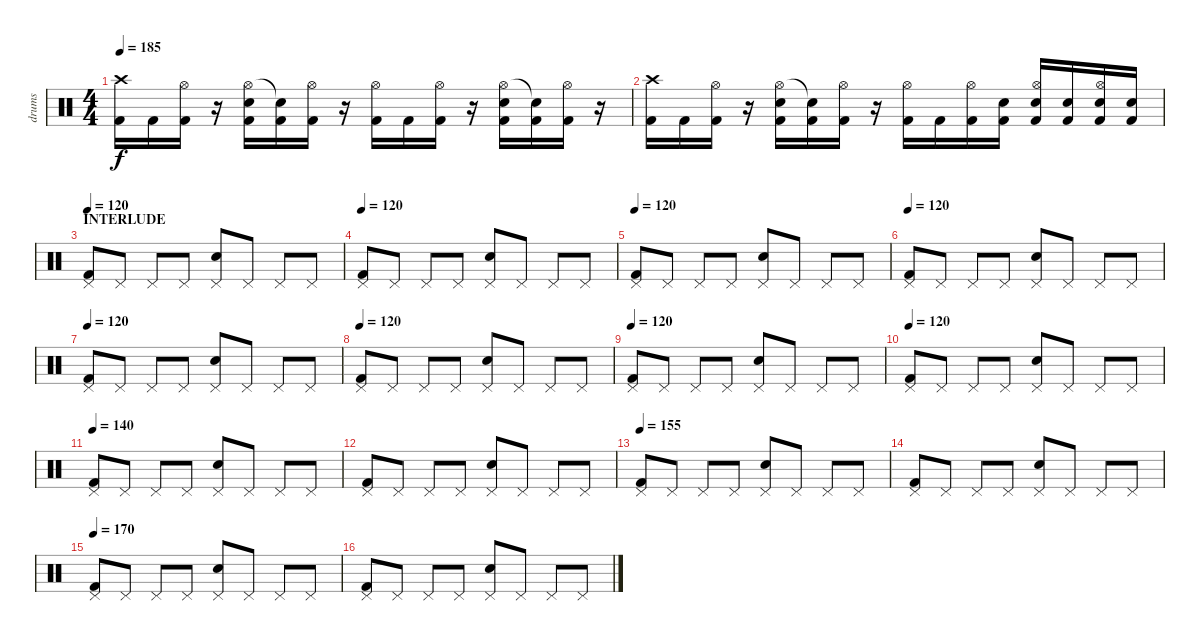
\track ("drums" "drums") {instrument percussion}
\staff {score}
\articulation defaults
\ts (4 4)
\tempo 185
\clef neutral
\ks c
("Crash high (hit)" "Kick (hit) 2").16{dy f} "Kick (hit) 2".16 ("Hi-Hat (open)" "Kick (hit) 2").16 r.16 ("Hi-Hat (open)" "Electric Snare (hit)" "Kick (hit) 2").16 ("Snare (hit)"{t} "Kick (hit) 2").16 ("Hi-Hat (open)" "Kick (hit) 2").16 r.16 ("Hi-Hat (open)" "Kick (hit) 2").16 "Kick (hit) 2".16 ("Hi-Hat (open)" "Kick (hit) 2").16 r.16 ("Hi-Hat (open)" "Electric Snare (hit)" "Kick (hit) 2").16 ("Snare (hit)"{t} "Kick (hit) 2").16 ("Hi-Hat (open)" "Kick (hit) 2").16 r.16 |
("Crash high (hit)" "Kick (hit) 2").16 "Kick (hit) 2".16 ("Hi-Hat (open)" "Kick (hit) 2").16 r.16 ("Hi-Hat (open)" "Electric Snare (hit)" "Kick (hit) 2").16 ("Snare (hit)"{t} "Kick (hit) 2").16 ("Hi-Hat (open)" "Kick (hit) 2").16 r.16 ("Hi-Hat (open)" "Kick (hit) 2").16 "Kick (hit) 2".16 ("Hi-Hat (open)" "Kick (hit) 2").16 ("Electric Snare (hit)" "Kick (hit) 2").16 ("Hi-Hat (open)" "Electric Snare (hit)" "Kick (hit) 2").16 ("Electric Snare (hit)" "Kick (hit) 2").16 ("Hi-Hat (open)" "Electric Snare (hit)" "Kick (hit) 2").16 ("Electric Snare (hit)" "Kick (hit) 2").16 |
\section ("" "INTERLUDE")
\tempo 120
("Pedal Hi-Hat (hit)" "Kick (hit) 2").8 "Pedal Hi-Hat (hit)".8 "Pedal Hi-Hat (hit)".8 "Pedal Hi-Hat (hit)".8 ("Pedal Hi-Hat (hit)" "Electric Snare (hit)").8 "Pedal Hi-Hat (hit)".8 "Pedal Hi-Hat (hit)".8 "Pedal Hi-Hat (hit)".8 |
\tempo 120
("Pedal Hi-Hat (hit)" "Kick (hit) 2").8 "Pedal Hi-Hat (hit)".8 "Pedal Hi-Hat (hit)".8 "Pedal Hi-Hat (hit)".8 ("Pedal Hi-Hat (hit)" "Electric Snare (hit)").8 "Pedal Hi-Hat (hit)".8 "Pedal Hi-Hat (hit)".8 "Pedal Hi-Hat (hit)".8 |
\tempo 120
("Pedal Hi-Hat (hit)" "Kick (hit) 2").8 "Pedal Hi-Hat (hit)".8 "Pedal Hi-Hat (hit)".8 "Pedal Hi-Hat (hit)".8 ("Pedal Hi-Hat (hit)" "Electric Snare (hit)").8 "Pedal Hi-Hat (hit)".8 "Pedal Hi-Hat (hit)".8 "Pedal Hi-Hat (hit)".8 |
\tempo 120
("Pedal Hi-Hat (hit)" "Kick (hit) 2").8 "Pedal Hi-Hat (hit)".8 "Pedal Hi-Hat (hit)".8 "Pedal Hi-Hat (hit)".8 ("Pedal Hi-Hat (hit)" "Electric Snare (hit)").8 "Pedal Hi-Hat (hit)".8 "Pedal Hi-Hat (hit)".8 "Pedal Hi-Hat (hit)".8 |
\tempo 120
("Pedal Hi-Hat (hit)" "Kick (hit) 2").8 "Pedal Hi-Hat (hit)".8 "Pedal Hi-Hat (hit)".8 "Pedal Hi-Hat (hit)".8 ("Pedal Hi-Hat (hit)" "Electric Snare (hit)").8 "Pedal Hi-Hat (hit)".8 "Pedal Hi-Hat (hit)".8 "Pedal Hi-Hat (hit)".8 |
\tempo 120
("Pedal Hi-Hat (hit)" "Kick (hit) 2").8 "Pedal Hi-Hat (hit)".8 "Pedal Hi-Hat (hit)".8 "Pedal Hi-Hat (hit)".8 ("Pedal Hi-Hat (hit)" "Electric Snare (hit)").8 "Pedal Hi-Hat (hit)".8 "Pedal Hi-Hat (hit)".8 "Pedal Hi-Hat (hit)".8 |
\tempo 120
("Pedal Hi-Hat (hit)" "Kick (hit) 2").8 "Pedal Hi-Hat (hit)".8 "Pedal Hi-Hat (hit)".8 "Pedal Hi-Hat (hit)".8 ("Pedal Hi-Hat (hit)" "Electric Snare (hit)").8 "Pedal Hi-Hat (hit)".8 "Pedal Hi-Hat (hit)".8 "Pedal Hi-Hat (hit)".8 |
\tempo 120
("Pedal Hi-Hat (hit)" "Kick (hit) 2").8 "Pedal Hi-Hat (hit)".8 "Pedal Hi-Hat (hit)".8 "Pedal Hi-Hat (hit)".8 ("Pedal Hi-Hat (hit)" "Electric Snare (hit)").8 "Pedal Hi-Hat (hit)".8 "Pedal Hi-Hat (hit)".8 "Pedal Hi-Hat (hit)".8 |
\tempo 140
("Pedal Hi-Hat (hit)" "Kick (hit) 2").8 "Pedal Hi-Hat (hit)".8 "Pedal Hi-Hat (hit)".8 "Pedal Hi-Hat (hit)".8 ("Pedal Hi-Hat (hit)" "Electric Snare (hit)").8 "Pedal Hi-Hat (hit)".8 "Pedal Hi-Hat (hit)".8 "Pedal Hi-Hat (hit)".8 |
("Pedal Hi-Hat (hit)" "Kick (hit) 2").8 "Pedal Hi-Hat (hit)".8 "Pedal Hi-Hat (hit)".8 "Pedal Hi-Hat (hit)".8 ("Pedal Hi-Hat (hit)" "Electric Snare (hit)").8 "Pedal Hi-Hat (hit)".8 "Pedal Hi-Hat (hit)".8 "Pedal Hi-Hat (hit)".8 |
\tempo 155
("Pedal Hi-Hat (hit)" "Kick (hit) 2").8 "Pedal Hi-Hat (hit)".8 "Pedal Hi-Hat (hit)".8 "Pedal Hi-Hat (hit)".8 ("Pedal Hi-Hat (hit)" "Electric Snare (hit)").8 "Pedal Hi-Hat (hit)".8 "Pedal Hi-Hat (hit)".8 "Pedal Hi-Hat (hit)".8 |
("Pedal Hi-Hat (hit)" "Kick (hit) 2").8 "Pedal Hi-Hat (hit)".8 "Pedal Hi-Hat (hit)".8 "Pedal Hi-Hat (hit)".8 ("Pedal Hi-Hat (hit)" "Electric Snare (hit)").8 "Pedal Hi-Hat (hit)".8 "Pedal Hi-Hat (hit)".8 "Pedal Hi-Hat (hit)".8 |
\tempo 170
("Pedal Hi-Hat (hit)" "Kick (hit) 2").8 "Pedal Hi-Hat (hit)".8 "Pedal Hi-Hat (hit)".8 "Pedal Hi-Hat (hit)".8 ("Pedal Hi-Hat (hit)" "Electric Snare (hit)").8 "Pedal Hi-Hat (hit)".8 "Pedal Hi-Hat (hit)".8 "Pedal Hi-Hat (hit)".8 |
("Pedal Hi-Hat (hit)" "Kick (hit) 2").8 "Pedal Hi-Hat (hit)".8 "Pedal Hi-Hat (hit)".8 "Pedal Hi-Hat (hit)".8 ("Pedal Hi-Hat (hit)" "Electric Snare (hit)").8 "Pedal Hi-Hat (hit)".8 "Pedal Hi-Hat (hit)".8 "Pedal Hi-Hat (hit)".8
